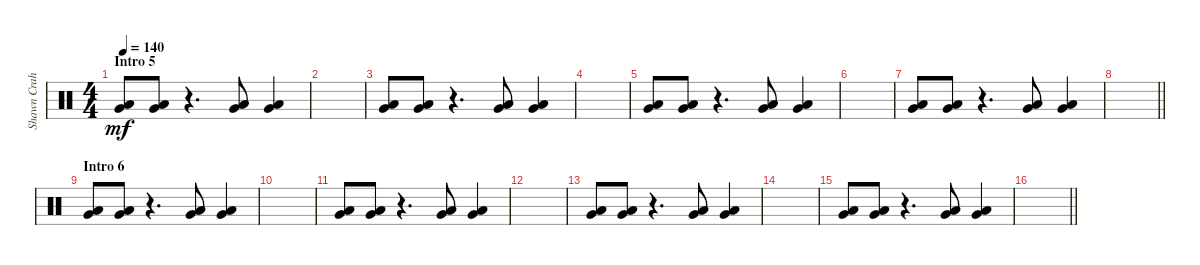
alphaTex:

\track ("Shawn Crahan" "Shawn Crah") {instrument percussion}
\staff {score}
\articulation defaults
\ts (4 4)
\section ("" "Intro 5")
\tempo 140
\clef neutral
\ks c
("Very Low Tom (hit)" "Low Floor Tom (hit)").8{dy mf} ("Very Low Tom (hit)" "Low Floor Tom (hit)").8 r.4{d} ("Very Low Tom (hit)" "Low Floor Tom (hit)").8 ("Very Low Tom (hit)" "Low Floor Tom (hit)").4 |
|
("Very Low Tom (hit)" "Low Floor Tom (hit)").8 ("Very Low Tom (hit)" "Low Floor Tom (hit)").8 r.4{d} ("Very Low Tom (hit)" "Low Floor Tom (hit)").8 ("Very Low Tom (hit)" "Low Floor Tom (hit)").4 |
|
("Very Low Tom (hit)" "Low Floor Tom (hit)").8 ("Very Low Tom (hit)" "Low Floor Tom (hit)").8 r.4{d} ("Very Low Tom (hit)" "Low Floor Tom (hit)").8 ("Very Low Tom (hit)" "Low Floor Tom (hit)").4 |
|
("Very Low Tom (hit)" "Low Floor Tom (hit)").8 ("Very Low Tom (hit)" "Low Floor Tom (hit)").8 r.4{d} ("Very Low Tom (hit)" "Low Floor Tom (hit)").8 ("Very Low Tom (hit)" "Low Floor Tom (hit)").4 |
\barLineRight lightlight
|
\section ("" "Intro 6")
("Very Low Tom (hit)" "Low Floor Tom (hit)").8 ("Very Low Tom (hit)" "Low Floor Tom (hit)").8 r.4{d} ("Very Low Tom (hit)" "Low Floor Tom (hit)").8 ("Very Low Tom (hit)" "Low Floor Tom (hit)").4 |
|
("Very Low Tom (hit)" "Low Floor Tom (hit)").8 ("Very Low Tom (hit)" "Low Floor Tom (hit)").8 r.4{d} ("Very Low Tom (hit)" "Low Floor Tom (hit)").8 ("Very Low Tom (hit)" "Low Floor Tom (hit)").4 |
|
("Very Low Tom (hit)" "Low Floor Tom (hit)").8 ("Very Low Tom (hit)" "Low Floor Tom (hit)").8 r.4{d} ("Very Low Tom (hit)" "Low Floor Tom (hit)").8 ("Very Low Tom (hit)" "Low Floor Tom (hit)").4 |
|
("Very Low Tom (hit)" "Low Floor Tom (hit)").8 ("Very Low Tom (hit)" "Low Floor Tom (hit)").8 r.4{d} ("Very Low Tom (hit)" "Low Floor Tom (hit)").8 ("Very Low Tom (hit)" "Low Floor Tom (hit)").4 |
\barLineRight lightlight
